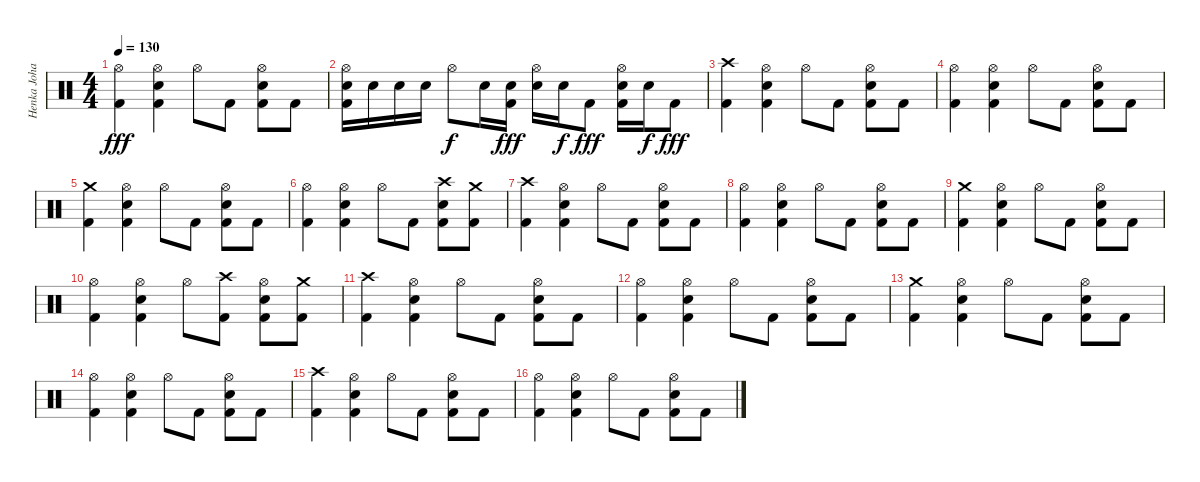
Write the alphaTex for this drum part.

\track ("Henka Johansson" "Henka Joha") {instrument percussion}
\staff {score}
\articulation defaults
\ts (4 4)
\tempo 130
\clef neutral
\ks c
("Hi-Hat (open)" "Kick (hit) 2").4{dy fff} ("Hi-Hat (open)" "Electric Snare (hit)" "Kick (hit) 2").4 "Hi-Hat (open)".8 "Kick (hit) 2".8 ("Hi-Hat (open)" "Electric Snare (hit)" "Kick (hit) 2").8 "Kick (hit) 2".8 |
("Hi-Hat (open)" "Electric Snare (hit)" "Kick (hit) 2").16 "Electric Snare (hit)".16 "Electric Snare (hit)".16 "Electric Snare (hit)".16 "Hi-Hat (open)".8{dy f} "Electric Snare (hit)".16 ("Electric Snare (hit)" "Kick (hit) 2").16{dy fff} ("Hi-Hat (open)" "Electric Snare (hit)").16 "Electric Snare (hit)".16{dy f} "Kick (hit) 2".8{dy fff} ("Hi-Hat (open)" "Electric Snare (hit)" "Kick (hit) 2").16 "Electric Snare (hit)".16{dy f} "Kick (hit) 2".8{dy fff} |
("Crash high (hit)" "Kick (hit) 2").4 ("Hi-Hat (open)" "Electric Snare (hit)" "Kick (hit) 2").4 "Hi-Hat (open)".8 "Kick (hit) 2".8 ("Hi-Hat (open)" "Electric Snare (hit)" "Kick (hit) 2").8 "Kick (hit) 2".8 |
("Hi-Hat (open)" "Kick (hit) 2").4 ("Hi-Hat (open)" "Electric Snare (hit)" "Kick (hit) 2").4 "Hi-Hat (open)".8 "Kick (hit) 2".8 ("Hi-Hat (open)" "Electric Snare (hit)" "Kick (hit) 2").8 "Kick (hit) 2".8 |
("Crash medium (hit)" "Kick (hit) 2").4 ("Hi-Hat (open)" "Electric Snare (hit)" "Kick (hit) 2").4 "Hi-Hat (open)".8 "Kick (hit) 2".8 ("Hi-Hat (open)" "Electric Snare (hit)" "Kick (hit) 2").8 "Kick (hit) 2".8 |
("Hi-Hat (open)" "Kick (hit) 2").4 ("Hi-Hat (open)" "Electric Snare (hit)" "Kick (hit) 2").4 "Hi-Hat (open)".8 "Kick (hit) 2".8 ("Crash high (hit)" "Electric Snare (hit)" "Kick (hit) 2").8 ("Crash medium (hit)" "Kick (hit) 2").8 |
("Crash high (hit)" "Kick (hit) 2").4 ("Hi-Hat (open)" "Electric Snare (hit)" "Kick (hit) 2").4 "Hi-Hat (open)".8 "Kick (hit) 2".8 ("Hi-Hat (open)" "Electric Snare (hit)" "Kick (hit) 2").8 "Kick (hit) 2".8 |
("Hi-Hat (open)" "Kick (hit) 2").4 ("Hi-Hat (open)" "Electric Snare (hit)" "Kick (hit) 2").4 "Hi-Hat (open)".8 "Kick (hit) 2".8 ("Hi-Hat (open)" "Electric Snare (hit)" "Kick (hit) 2").8 "Kick (hit) 2".8 |
("Crash medium (hit)" "Kick (hit) 2").4 ("Hi-Hat (open)" "Electric Snare (hit)" "Kick (hit) 2").4 "Hi-Hat (open)".8 "Kick (hit) 2".8 ("Hi-Hat (open)" "Electric Snare (hit)" "Kick (hit) 2").8 "Kick (hit) 2".8 |
("Hi-Hat (open)" "Kick (hit) 2").4 ("Hi-Hat (open)" "Electric Snare (hit)" "Kick (hit) 2").4 "Hi-Hat (open)".8 ("Crash high (hit)" "Kick (hit) 2").8 ("Hi-Hat (open)" "Electric Snare (hit)" "Kick (hit) 2").8 ("Crash medium (hit)" "Kick (hit) 2").8 |
("Crash high (hit)" "Kick (hit) 2").4 ("Hi-Hat (open)" "Electric Snare (hit)" "Kick (hit) 2").4 "Hi-Hat (open)".8 "Kick (hit) 2".8 ("Hi-Hat (open)" "Electric Snare (hit)" "Kick (hit) 2").8 "Kick (hit) 2".8 |
("Hi-Hat (open)" "Kick (hit) 2").4 ("Hi-Hat (open)" "Electric Snare (hit)" "Kick (hit) 2").4 "Hi-Hat (open)".8 "Kick (hit) 2".8 ("Hi-Hat (open)" "Electric Snare (hit)" "Kick (hit) 2").8 "Kick (hit) 2".8 |
("Crash medium (hit)" "Kick (hit) 2").4 ("Hi-Hat (open)" "Electric Snare (hit)" "Kick (hit) 2").4 "Hi-Hat (open)".8 "Kick (hit) 2".8 ("Hi-Hat (open)" "Electric Snare (hit)" "Kick (hit) 2").8 "Kick (hit) 2".8 |
("Hi-Hat (open)" "Kick (hit) 2").4 ("Hi-Hat (open)" "Electric Snare (hit)" "Kick (hit) 2").4 "Hi-Hat (open)".8 "Kick (hit) 2".8 ("Hi-Hat (open)" "Electric Snare (hit)" "Kick (hit) 2").8 "Kick (hit) 2".8 |
("Crash high (hit)" "Kick (hit) 2").4 ("Hi-Hat (open)" "Electric Snare (hit)" "Kick (hit) 2").4 "Hi-Hat (open)".8 "Kick (hit) 2".8 ("Hi-Hat (open)" "Electric Snare (hit)" "Kick (hit) 2").8 "Kick (hit) 2".8 |
("Hi-Hat (open)" "Kick (hit) 2").4 ("Hi-Hat (open)" "Electric Snare (hit)" "Kick (hit) 2").4 "Hi-Hat (open)".8 "Kick (hit) 2".8 ("Hi-Hat (open)" "Electric Snare (hit)" "Kick (hit) 2").8 "Kick (hit) 2".8
